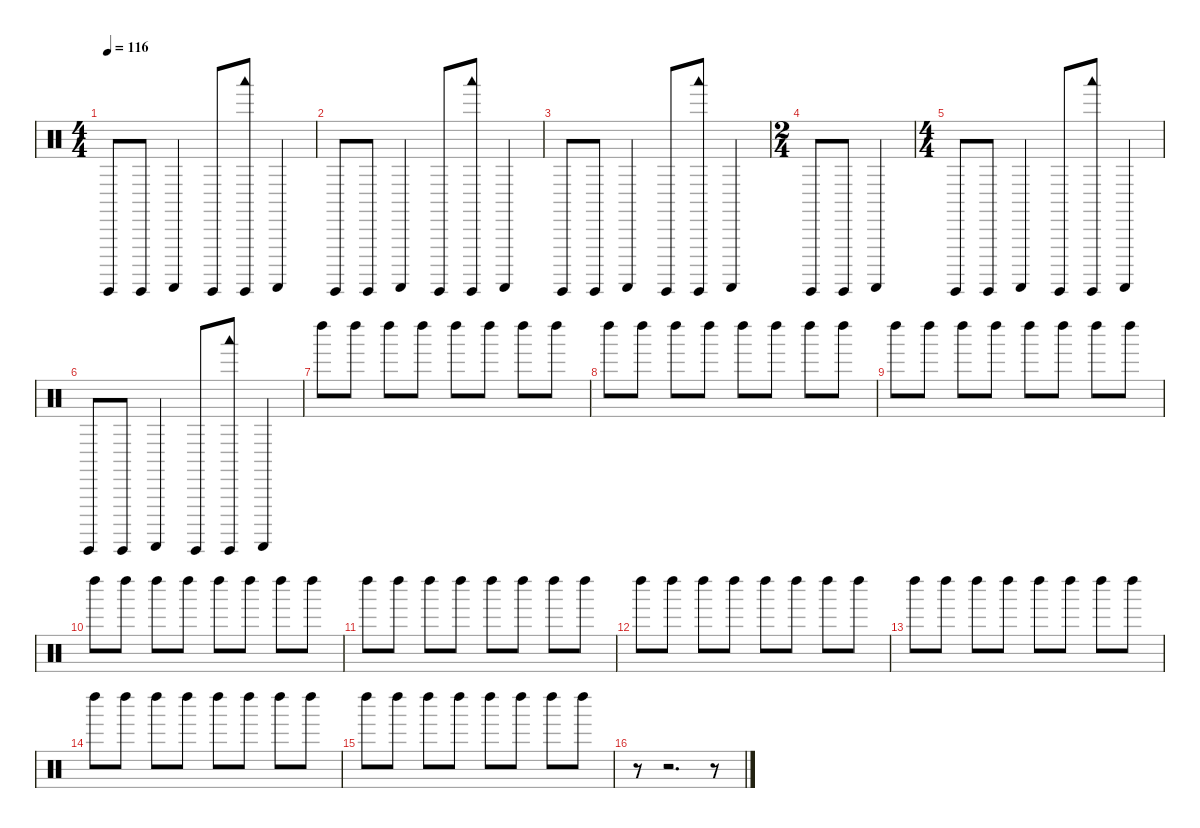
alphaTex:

\defaultSystemsLayout 4
\hideDynamics
\bracketExtendMode nobrackets
\singleTrackTrackNamePolicy hidden
\multiTrackTrackNamePolicy hidden
\firstSystemTrackNameMode fullname
\firstSystemTrackNameOrientation horizontal
\otherSystemsTrackNameOrientation horizontal
\track ("Percussions" "drm.") {instrument percussion}
\staff {score}
\articulation defaults
\ts (4 4)
\tempo 116
\clef neutral
\ks c "Guiro (hit)".8{dy f beam Up} "Guiro (hit)".8{beam Up} "Guiro (scrap-return)".4{beam Up} "Guiro (hit)".8{beam Up}
("Guiro (hit)" "Woodblock low (hit)").8{beam Up} "Guiro (scrap-return)".4{beam Up} |
"Guiro (hit)".8{beam Up} "Guiro (hit)".8{beam Up} "Guiro (scrap-return)".4{beam Up} "Guiro (hit)".8{beam Up} ("Guiro (hit)" "Woodblock low (hit)").8{beam Up} "Guiro (scrap-return)".4{beam Up} |
"Guiro (hit)".8{beam Up} "Guiro (hit)".8{beam Up} "Guiro (scrap-return)".4{beam Up} "Guiro (hit)".8{beam Up} ("Guiro (hit)" "Woodblock low (hit)").8{beam Up} "Guiro (scrap-return)".4{beam Up} |
\ts (2 4)
"Guiro (hit)".8{beam Up} "Guiro (hit)".8{beam Up} "Guiro (scrap-return)".4{beam Up} |
\ts (4 4)
"Guiro (hit)".8{beam Up} "Guiro (hit)".8{beam Up} "Guiro (scrap-return)".4{beam Up} "Guiro (hit)".8{beam Up} ("Guiro (hit)" "Woodblock low (hit)").8{beam Up} "Guiro (scrap-return)".4{beam Up} |
"Guiro (hit)".8{beam Up} "Guiro (hit)".8{beam Up} "Guiro (scrap-return)".4{beam Up} "Guiro (hit)".8{beam Up} ("Guiro (hit)" "Woodblock low (hit)").8{beam Up} "Guiro (scrap-return)".4{beam Up} |
"Left Maraca (hit)".8{beam Down} "Left Maraca (hit)".8{beam Down} "Left Maraca (hit)".8{beam Down} "Left Maraca (hit)".8{beam Down} "Left Maraca (hit)".8{beam Down} "Left Maraca (hit)".8{beam Down} "Left Maraca (hit)".8{beam Down} "Left Maraca (hit)".8{beam Down} |
"Left Maraca (hit)".8{beam Down} "Left Maraca (hit)".8{beam Down} "Left Maraca (hit)".8{beam Down} "Left Maraca (hit)".8{beam Down} "Left Maraca (hit)".8{beam Down} "Left Maraca (hit)".8{beam Down} "Left Maraca (hit)".8{beam Down} "Left Maraca (hit)".8{beam Down} |
"Left Maraca (hit)".8{beam Down} "Left Maraca (hit)".8{beam Down} "Left Maraca (hit)".8{beam Down} "Left Maraca (hit)".8{beam Down} "Left Maraca (hit)".8{beam Down} "Left Maraca (hit)".8{beam Down} "Left Maraca (hit)".8{beam Down} "Left Maraca (hit)".8{beam Down} |
"Left Maraca (hit)".8{beam Down} "Left Maraca (hit)".8{beam Down} "Left Maraca (hit)".8{beam Down} "Left Maraca (hit)".8{beam Down} "Left Maraca (hit)".8{beam Down} "Left Maraca (hit)".8{beam Down} "Left Maraca (hit)".8{beam Down} "Left Maraca (hit)".8{beam Down} |
"Left Maraca (hit)".8{beam Down} "Left Maraca (hit)".8{beam Down} "Left Maraca (hit)".8{beam Down} "Left Maraca (hit)".8{beam Down} "Left Maraca (hit)".8{beam Down} "Left Maraca (hit)".8{beam Down} "Left Maraca (hit)".8{beam Down} "Left Maraca (hit)".8{beam Down} |
"Left Maraca (hit)".8{beam Down} "Left Maraca (hit)".8{beam Down} "Left Maraca (hit)".8{beam Down} "Left Maraca (hit)".8{beam Down} "Left Maraca (hit)".8{beam Down} "Left Maraca (hit)".8{beam Down} "Left Maraca (hit)".8{beam Down} "Left Maraca (hit)".8{beam Down} |
"Left Maraca (hit)".8{beam Down} "Left Maraca (hit)".8{beam Down} "Left Maraca (hit)".8{beam Down} "Left Maraca (hit)".8{beam Down} "Left Maraca (hit)".8{beam Down} "Left Maraca (hit)".8{beam Down} "Left Maraca (hit)".8{beam Down} "Left Maraca (hit)".8{beam Down} |
"Left Maraca (hit)".8{beam Down} "Left Maraca (hit)".8{beam Down} "Left Maraca (hit)".8{beam Down} "Left Maraca (hit)".8{beam Down} "Left Maraca (hit)".8{beam Down} "Left Maraca (hit)".8{beam Down} "Left Maraca (hit)".8{beam Down} "Left Maraca (hit)".8{beam Down} |
"Left Maraca (hit)".8{beam Down} "Left Maraca (hit)".8{beam Down} "Left Maraca (hit)".8{beam Down} "Left Maraca (hit)".8{beam Down} "Left Maraca (hit)".8{beam Down} "Left Maraca (hit)".8{beam Down} "Left Maraca (hit)".8{beam Down} "Left Maraca (hit)".8{beam Down} |
r.8{beam Down} r.2{d beam Down} r.8{beam Down}
